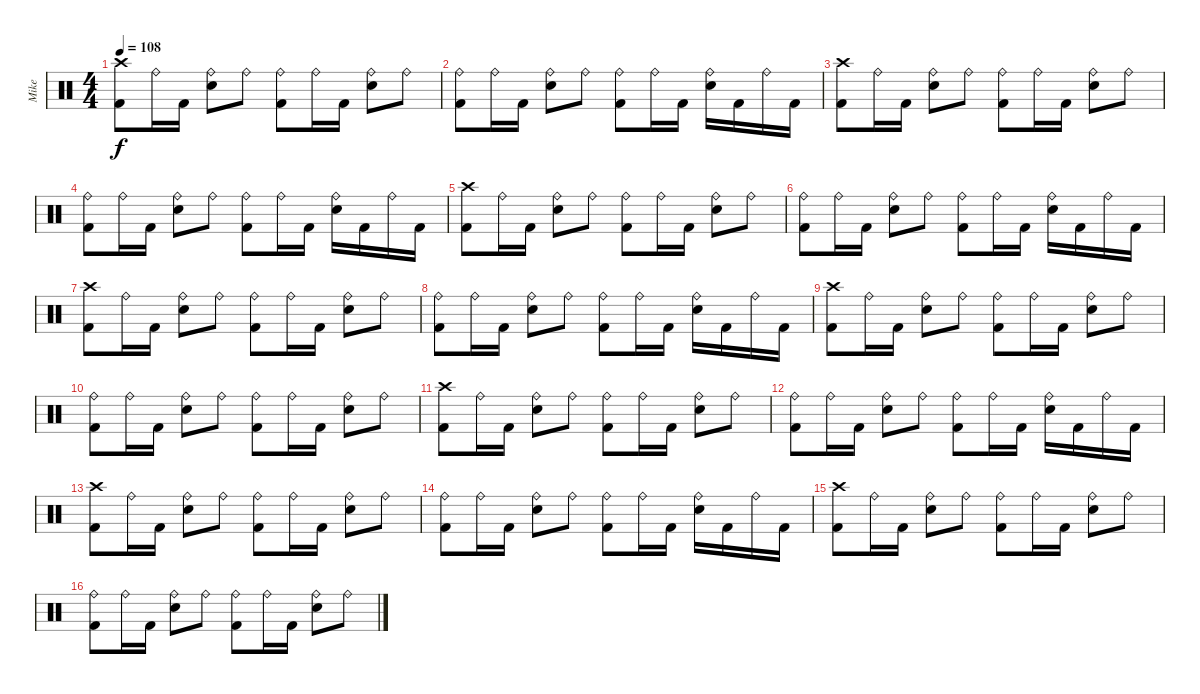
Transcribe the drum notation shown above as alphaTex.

\track ("Mike" "Mike") {instrument percussion}
\staff {score}
\articulation defaults
\ts (4 4)
\tempo 108
\tempo 66
\tempo 108
\clef neutral
\ks c
("Crash high (hit)" "Kick (hit) 2").8{dy f} "Ride (bell)".16 "Kick (hit) 2".16 ("Ride (bell)" "Snare (hit) 2").8 "Ride (bell)".8 ("Ride (bell)" "Kick (hit) 2").8 "Ride (bell)".16 "Kick (hit) 2".16 ("Ride (bell)" "Snare (hit) 2").8 "Ride (bell)".8 |
("Ride (bell)" "Kick (hit) 2").8 "Ride (bell)".16 "Kick (hit) 2".16 ("Ride (bell)" "Snare (hit) 2").8 "Ride (bell)".8 ("Ride (bell)" "Kick (hit) 2").8 "Ride (bell)".16 "Kick (hit) 2".16 ("Ride (bell)" "Snare (hit) 2").16 "Kick (hit) 2".16 "Ride (bell)".16 "Kick (hit) 2".16 |
("Crash high (hit)" "Kick (hit) 2").8 "Ride (bell)".16 "Kick (hit) 2".16 ("Ride (bell)" "Snare (hit) 2").8 "Ride (bell)".8 ("Ride (bell)" "Kick (hit) 2").8 "Ride (bell)".16 "Kick (hit) 2".16 ("Ride (bell)" "Snare (hit) 2").8 "Ride (bell)".8 |
("Ride (bell)" "Kick (hit) 2").8 "Ride (bell)".16 "Kick (hit) 2".16 ("Ride (bell)" "Snare (hit) 2").8 "Ride (bell)".8 ("Ride (bell)" "Kick (hit) 2").8 "Ride (bell)".16 "Kick (hit) 2".16 ("Ride (bell)" "Snare (hit) 2").16 "Kick (hit) 2".16 "Ride (bell)".16 "Kick (hit) 2".16 |
("Crash high (hit)" "Kick (hit) 2").8 "Ride (bell)".16 "Kick (hit) 2".16 ("Ride (bell)" "Snare (hit) 2").8 "Ride (bell)".8 ("Ride (bell)" "Kick (hit) 2").8 "Ride (bell)".16 "Kick (hit) 2".16 ("Ride (bell)" "Snare (hit) 2").8 "Ride (bell)".8 |
("Ride (bell)" "Kick (hit) 2").8 "Ride (bell)".16 "Kick (hit) 2".16 ("Ride (bell)" "Snare (hit) 2").8 "Ride (bell)".8 ("Ride (bell)" "Kick (hit) 2").8 "Ride (bell)".16 "Kick (hit) 2".16 ("Ride (bell)" "Snare (hit) 2").16 "Kick (hit) 2".16 "Ride (bell)".16 "Kick (hit) 2".16 |
("Crash high (hit)" "Kick (hit) 2").8 "Ride (bell)".16 "Kick (hit) 2".16 ("Ride (bell)" "Snare (hit) 2").8 "Ride (bell)".8 ("Ride (bell)" "Kick (hit) 2").8 "Ride (bell)".16 "Kick (hit) 2".16 ("Ride (bell)" "Snare (hit) 2").8 "Ride (bell)".8 |
("Ride (bell)" "Kick (hit) 2").8 "Ride (bell)".16 "Kick (hit) 2".16 ("Ride (bell)" "Snare (hit) 2").8 "Ride (bell)".8 ("Ride (bell)" "Kick (hit) 2").8 "Ride (bell)".16 "Kick (hit) 2".16 ("Ride (bell)" "Snare (hit) 2").16 "Kick (hit) 2".16 "Ride (bell)".16 "Kick (hit) 2".16 |
("Crash high (hit)" "Kick (hit) 2").8 "Ride (bell)".16 "Kick (hit) 2".16 ("Ride (bell)" "Snare (hit) 2").8 "Ride (bell)".8 ("Ride (bell)" "Kick (hit) 2").8 "Ride (bell)".16 "Kick (hit) 2".16 ("Ride (bell)" "Snare (hit) 2").8 "Ride (bell)".8 |
("Ride (bell)" "Kick (hit) 2").8 "Ride (bell)".16 "Kick (hit) 2".16 ("Ride (bell)" "Snare (hit) 2").8 "Ride (bell)".8 ("Ride (bell)" "Kick (hit) 2").8 "Ride (bell)".16 "Kick (hit) 2".16 ("Ride (bell)" "Snare (hit) 2").8 "Ride (bell)".8 |
("Crash high (hit)" "Kick (hit) 2").8 "Ride (bell)".16 "Kick (hit) 2".16 ("Ride (bell)" "Snare (hit) 2").8 "Ride (bell)".8 ("Ride (bell)" "Kick (hit) 2").8 "Ride (bell)".16 "Kick (hit) 2".16 ("Ride (bell)" "Snare (hit) 2").8 "Ride (bell)".8 |
("Ride (bell)" "Kick (hit) 2").8 "Ride (bell)".16 "Kick (hit) 2".16 ("Ride (bell)" "Snare (hit) 2").8 "Ride (bell)".8 ("Ride (bell)" "Kick (hit) 2").8 "Ride (bell)".16 "Kick (hit) 2".16 ("Ride (bell)" "Snare (hit) 2").16 "Kick (hit) 2".16 "Ride (bell)".16 "Kick (hit) 2".16 |
("Crash high (hit)" "Kick (hit) 2").8 "Ride (bell)".16 "Kick (hit) 2".16 ("Ride (bell)" "Snare (hit) 2").8 "Ride (bell)".8 ("Ride (bell)" "Kick (hit) 2").8 "Ride (bell)".16 "Kick (hit) 2".16 ("Ride (bell)" "Snare (hit) 2").8 "Ride (bell)".8 |
("Ride (bell)" "Kick (hit) 2").8 "Ride (bell)".16 "Kick (hit) 2".16 ("Ride (bell)" "Snare (hit) 2").8 "Ride (bell)".8 ("Ride (bell)" "Kick (hit) 2").8 "Ride (bell)".16 "Kick (hit) 2".16 ("Ride (bell)" "Snare (hit) 2").16 "Kick (hit) 2".16 "Ride (bell)".16 "Kick (hit) 2".16 |
("Crash high (hit)" "Kick (hit) 2").8 "Ride (bell)".16 "Kick (hit) 2".16 ("Ride (bell)" "Snare (hit) 2").8 "Ride (bell)".8 ("Ride (bell)" "Kick (hit) 2").8 "Ride (bell)".16 "Kick (hit) 2".16 ("Ride (bell)" "Snare (hit) 2").8 "Ride (bell)".8 |
("Ride (bell)" "Kick (hit) 2").8 "Ride (bell)".16 "Kick (hit) 2".16 ("Ride (bell)" "Snare (hit) 2").8 "Ride (bell)".8 ("Ride (bell)" "Kick (hit) 2").8 "Ride (bell)".16 "Kick (hit) 2".16 ("Ride (bell)" "Snare (hit) 2").8 "Ride (bell)".8
